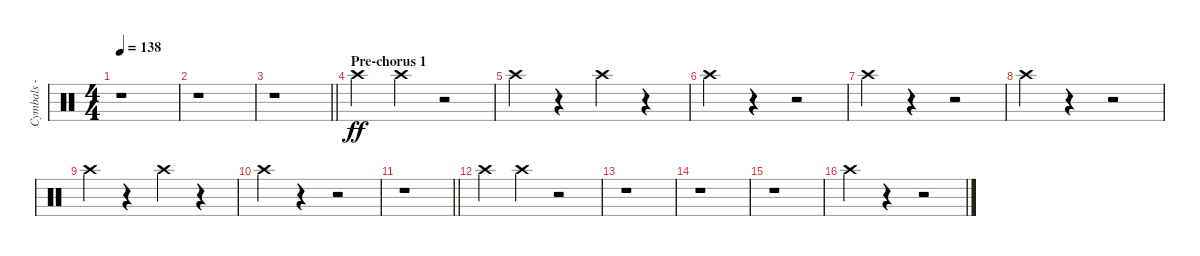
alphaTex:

\track ("Cymbals - crash" "Cymbals - ") {instrument percussion}
\staff {score}
\articulation defaults
\ts (4 4)
\tempo 138
\clef neutral
\ks c
r.1{dy ff} |
r.1 |
\barLineRight lightlight
r.1 |
\section ("" "Pre-chorus 1")
"Crash high (hit)".4 "Crash high (hit)".4 r.2 |
"Crash high (hit)".4 r.4 "Crash high (hit)".4 r.4 |
"Crash high (hit)".4 r.4 r.2 |
"Crash high (hit)".4 r.4 r.2 |
"Crash high (hit)".4 r.4 r.2 |
"Crash high (hit)".4 r.4 "Crash high (hit)".4 r.4 |
"Crash high (hit)".4 r.4 r.2 |
\barLineRight lightlight
r.1 |
"Crash high (hit)".4 "Crash high (hit)".4 r.2 |
r.1 |
r.1 |
r.1 |
"Crash high (hit)".4 r.4 r.2
